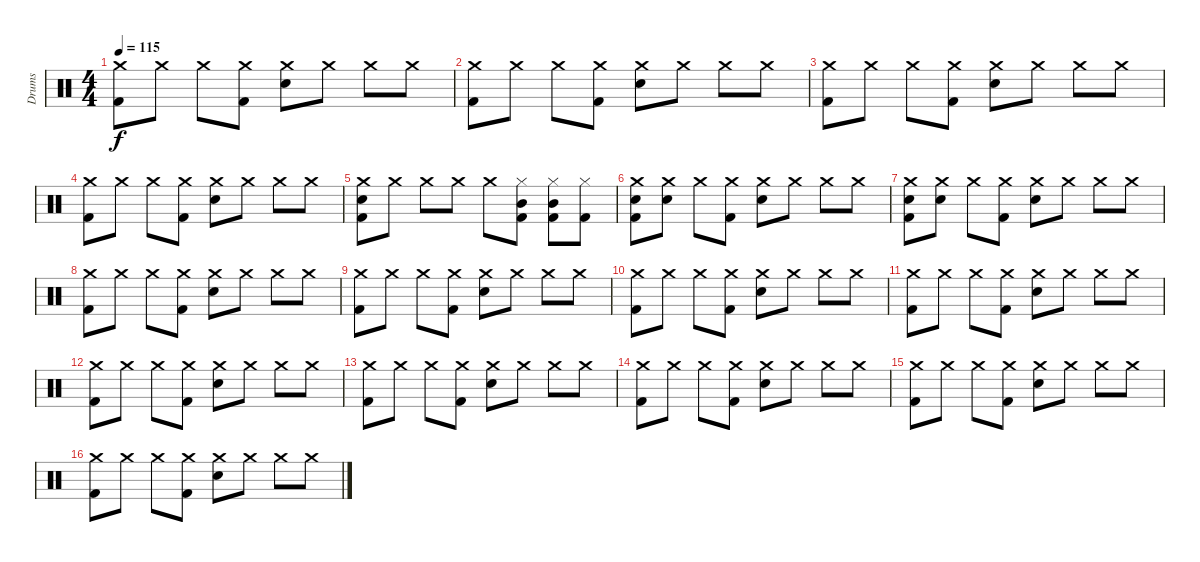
\track ("Drums" "Drums") {instrument percussion}
\staff {score}
\articulation defaults
\ts (4 4)
\tempo 115
\clef neutral
\ks c
("Kick (hit) 2" "Crash medium (hit)").8{dy f} "Crash medium (hit)".8 "Crash medium (hit)".8 ("Kick (hit) 2" "Crash medium (hit)").8 ("Electric Snare (hit)" "Crash medium (hit)").8 "Crash medium (hit)".8 "Crash medium (hit)".8 "Crash medium (hit)".8 |
("Kick (hit) 2" "Crash medium (hit)").8 "Crash medium (hit)".8 "Crash medium (hit)".8 ("Kick (hit) 2" "Crash medium (hit)").8 ("Electric Snare (hit)" "Crash medium (hit)").8 "Crash medium (hit)".8 "Crash medium (hit)".8 "Crash medium (hit)".8 |
("Kick (hit) 2" "Crash medium (hit)").8 "Crash medium (hit)".8 "Crash medium (hit)".8 ("Kick (hit) 2" "Crash medium (hit)").8 ("Electric Snare (hit)" "Crash medium (hit)").8 "Crash medium (hit)".8 "Crash medium (hit)".8 "Crash medium (hit)".8 |
("Kick (hit) 2" "Crash medium (hit)").8 "Crash medium (hit)".8 "Crash medium (hit)".8 ("Kick (hit) 2" "Crash medium (hit)").8 ("Electric Snare (hit)" "Crash medium (hit)").8 "Crash medium (hit)".8 "Crash medium (hit)".8 "Crash medium (hit)".8 |
("Kick (hit) 2" "Electric Snare (hit)" "Crash medium (hit)").8 "Crash medium (hit)".8 "Crash medium (hit)".8 "Crash medium (hit)".8 "Crash medium (hit)".8 ("Kick (hit) 2" "Hi-Hat (closed)" "Mid Tom (hit)").8 ("Kick (hit) 2" "Hi-Hat (closed)" "Mid Tom (hit)").8 ("Kick (hit) 2" "Hi-Hat (closed)").8 |
("Kick (hit) 2" "Electric Snare (hit)" "Crash medium (hit)").8 ("Electric Snare (hit)" "Crash medium (hit)").8 "Crash medium (hit)".8 ("Kick (hit) 2" "Crash medium (hit)").8 ("Electric Snare (hit)" "Crash medium (hit)").8 "Crash medium (hit)".8 "Crash medium (hit)".8 "Crash medium (hit)".8 |
("Kick (hit) 2" "Electric Snare (hit)" "Crash medium (hit)").8 ("Electric Snare (hit)" "Crash medium (hit)").8 "Crash medium (hit)".8 ("Kick (hit) 2" "Crash medium (hit)").8 ("Electric Snare (hit)" "Crash medium (hit)").8 "Crash medium (hit)".8 "Crash medium (hit)".8 "Crash medium (hit)".8 |
("Kick (hit) 2" "Crash medium (hit)").8 "Crash medium (hit)".8 "Crash medium (hit)".8 ("Kick (hit) 2" "Crash medium (hit)").8 ("Electric Snare (hit)" "Crash medium (hit)").8 "Crash medium (hit)".8 "Crash medium (hit)".8 "Crash medium (hit)".8 |
("Kick (hit) 2" "Crash medium (hit)").8 "Crash medium (hit)".8 "Crash medium (hit)".8 ("Kick (hit) 2" "Crash medium (hit)").8 ("Electric Snare (hit)" "Crash medium (hit)").8 "Crash medium (hit)".8 "Crash medium (hit)".8 "Crash medium (hit)".8 |
("Kick (hit) 2" "Crash medium (hit)").8 "Crash medium (hit)".8 "Crash medium (hit)".8 ("Kick (hit) 2" "Crash medium (hit)").8 ("Electric Snare (hit)" "Crash medium (hit)").8 "Crash medium (hit)".8 "Crash medium (hit)".8 "Crash medium (hit)".8 |
("Kick (hit) 2" "Crash medium (hit)").8 "Crash medium (hit)".8 "Crash medium (hit)".8 ("Kick (hit) 2" "Crash medium (hit)").8 ("Electric Snare (hit)" "Crash medium (hit)").8 "Crash medium (hit)".8 "Crash medium (hit)".8 "Crash medium (hit)".8 |
("Kick (hit) 2" "Crash medium (hit)").8 "Crash medium (hit)".8 "Crash medium (hit)".8 ("Kick (hit) 2" "Crash medium (hit)").8 ("Electric Snare (hit)" "Crash medium (hit)").8 "Crash medium (hit)".8 "Crash medium (hit)".8 "Crash medium (hit)".8 |
("Kick (hit) 2" "Crash medium (hit)").8 "Crash medium (hit)".8 "Crash medium (hit)".8 ("Kick (hit) 2" "Crash medium (hit)").8 ("Electric Snare (hit)" "Crash medium (hit)").8 "Crash medium (hit)".8 "Crash medium (hit)".8 "Crash medium (hit)".8 |
("Kick (hit) 2" "Crash medium (hit)").8 "Crash medium (hit)".8 "Crash medium (hit)".8 ("Kick (hit) 2" "Crash medium (hit)").8 ("Electric Snare (hit)" "Crash medium (hit)").8 "Crash medium (hit)".8 "Crash medium (hit)".8 "Crash medium (hit)".8 |
("Kick (hit) 2" "Crash medium (hit)").8 "Crash medium (hit)".8 "Crash medium (hit)".8 ("Kick (hit) 2" "Crash medium (hit)").8 ("Electric Snare (hit)" "Crash medium (hit)").8 "Crash medium (hit)".8 "Crash medium (hit)".8 "Crash medium (hit)".8 |
("Kick (hit) 2" "Crash medium (hit)").8 "Crash medium (hit)".8 "Crash medium (hit)".8 ("Kick (hit) 2" "Crash medium (hit)").8 ("Electric Snare (hit)" "Crash medium (hit)").8 "Crash medium (hit)".8 "Crash medium (hit)".8 "Crash medium (hit)".8
